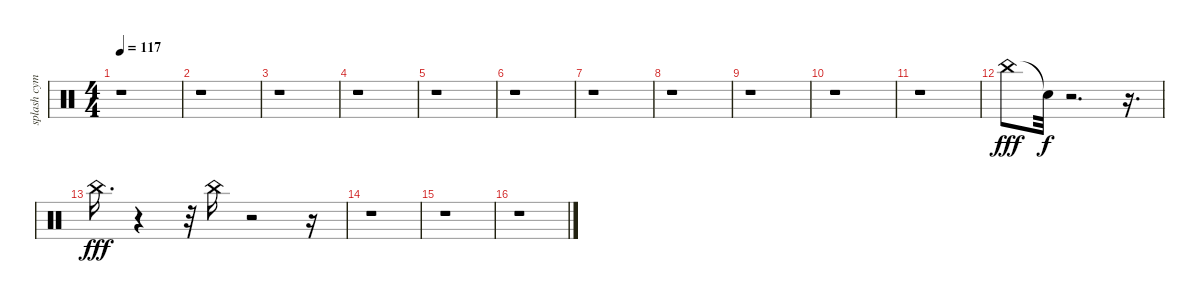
\track ("splash cymbal" "splash cym") {instrument percussion}
\staff {score}
\articulation defaults
\ts (4 4)
\tempo 117
\clef neutral
\ks c
r.1{dy fff} |
r.1 |
r.1 |
r.1 |
r.1 |
r.1 |
r.1 |
r.1 |
r.1 |
r.1 |
r.1 |
"China (hit)".8 "Snare (hit)"{t}.32{dy f} r.2{d} r.16{d} |
"China (hit)".16{d dy fff} r.4 r.32 "China (hit)".16 r.2 r.16 |
r.1 |
r.1 |
r.1
